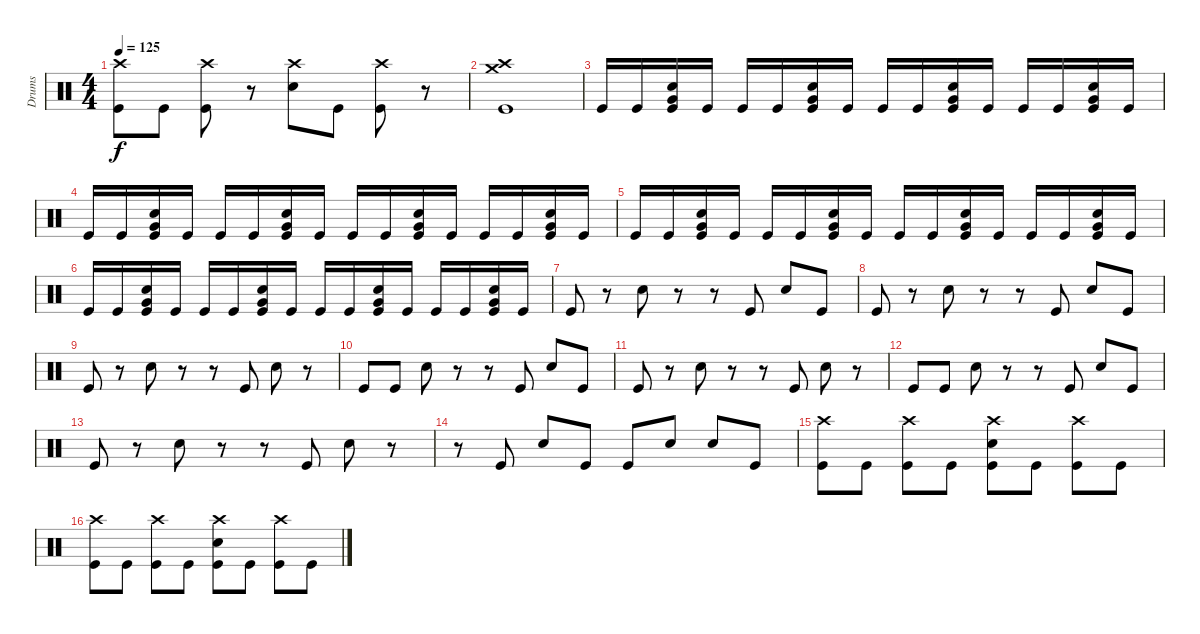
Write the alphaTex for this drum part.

\track ("Drums" "Drums") {instrument percussion}
\staff {score}
\articulation defaults
\ts (4 4)
\tempo 125
\clef neutral
\ks c
("Crash high (hit)" "Kick (hit)").8{dy f} "Kick (hit)".8 ("Crash high (hit)" "Kick (hit)").8 r.8 ("Crash high (hit)" "Electric Snare (hit)").8 "Kick (hit)".8 ("Crash high (hit)" "Kick (hit)").8 r.8 |
("Crash medium (hit)" "Crash high (hit)" "Kick (hit)").1 |
"Kick (hit)".16 "Kick (hit)".16 ("Very Low Tom (hit)" "Electric Snare (hit)" "Kick (hit)").16 "Kick (hit)".16 "Kick (hit)".16 "Kick (hit)".16 ("Very Low Tom (hit)" "Electric Snare (hit)" "Kick (hit)").16 "Kick (hit)".16 "Kick (hit)".16 "Kick (hit)".16 ("Very Low Tom (hit)" "Electric Snare (hit)" "Kick (hit)").16 "Kick (hit)".16 "Kick (hit)".16 "Kick (hit)".16 ("Very Low Tom (hit)" "Electric Snare (hit)" "Kick (hit)").16 "Kick (hit)".16 |
"Kick (hit)".16 "Kick (hit)".16 ("Very Low Tom (hit)" "Electric Snare (hit)" "Kick (hit)").16 "Kick (hit)".16 "Kick (hit)".16 "Kick (hit)".16 ("Very Low Tom (hit)" "Electric Snare (hit)" "Kick (hit)").16 "Kick (hit)".16 "Kick (hit)".16 "Kick (hit)".16 ("Very Low Tom (hit)" "Electric Snare (hit)" "Kick (hit)").16 "Kick (hit)".16 "Kick (hit)".16 "Kick (hit)".16 ("Very Low Tom (hit)" "Electric Snare (hit)" "Kick (hit)").16 "Kick (hit)".16 |
"Kick (hit)".16 "Kick (hit)".16 ("Very Low Tom (hit)" "Electric Snare (hit)" "Kick (hit)").16 "Kick (hit)".16 "Kick (hit)".16 "Kick (hit)".16 ("Very Low Tom (hit)" "Electric Snare (hit)" "Kick (hit)").16 "Kick (hit)".16 "Kick (hit)".16 "Kick (hit)".16 ("Very Low Tom (hit)" "Electric Snare (hit)" "Kick (hit)").16 "Kick (hit)".16 "Kick (hit)".16 "Kick (hit)".16 ("Very Low Tom (hit)" "Electric Snare (hit)" "Kick (hit)").16 "Kick (hit)".16 |
"Kick (hit)".16 "Kick (hit)".16 ("Very Low Tom (hit)" "Electric Snare (hit)" "Kick (hit)").16 "Kick (hit)".16 "Kick (hit)".16 "Kick (hit)".16 ("Very Low Tom (hit)" "Electric Snare (hit)" "Kick (hit)").16 "Kick (hit)".16 "Kick (hit)".16 "Kick (hit)".16 ("Very Low Tom (hit)" "Electric Snare (hit)" "Kick (hit)").16 "Kick (hit)".16 "Kick (hit)".16 "Kick (hit)".16 ("Very Low Tom (hit)" "Electric Snare (hit)" "Kick (hit)").16 "Kick (hit)".16 |
"Kick (hit)".8 r.8 "Electric Snare (hit)".8 r.8 r.8 "Kick (hit)".8 "Electric Snare (hit)".8 "Kick (hit)".8 |
"Kick (hit)".8 r.8 "Electric Snare (hit)".8 r.8 r.8 "Kick (hit)".8 "Electric Snare (hit)".8 "Kick (hit)".8 |
"Kick (hit)".8 r.8 "Electric Snare (hit)".8 r.8 r.8 "Kick (hit)".8 "Electric Snare (hit)".8 r.8 |
"Kick (hit)".8 "Kick (hit)".8 "Electric Snare (hit)".8 r.8 r.8 "Kick (hit)".8 "Electric Snare (hit)".8 "Kick (hit)".8 |
"Kick (hit)".8 r.8 "Electric Snare (hit)".8 r.8 r.8 "Kick (hit)".8 "Electric Snare (hit)".8 r.8 |
"Kick (hit)".8 "Kick (hit)".8 "Electric Snare (hit)".8 r.8 r.8 "Kick (hit)".8 "Electric Snare (hit)".8 "Kick (hit)".8 |
"Kick (hit)".8 r.8 "Electric Snare (hit)".8 r.8 r.8 "Kick (hit)".8 "Electric Snare (hit)".8 r.8 |
r.8 "Kick (hit)".8 "Electric Snare (hit)".8 "Kick (hit)".8 "Kick (hit)".8 "Electric Snare (hit)".8 "Electric Snare (hit)".8 "Kick (hit)".8 |
("Crash high (hit)" "Kick (hit)").8 "Kick (hit)".8 ("Crash high (hit)" "Kick (hit)").8 "Kick (hit)".8 ("Crash high (hit)" "Electric Snare (hit)" "Kick (hit)").8 "Kick (hit)".8 ("Crash high (hit)" "Kick (hit)").8 "Kick (hit)".8 |
("Crash high (hit)" "Kick (hit)").8 "Kick (hit)".8 ("Crash high (hit)" "Kick (hit)").8 "Kick (hit)".8 ("Crash high (hit)" "Electric Snare (hit)" "Kick (hit)").8 "Kick (hit)".8 ("Crash high (hit)" "Kick (hit)").8 "Kick (hit)".8
